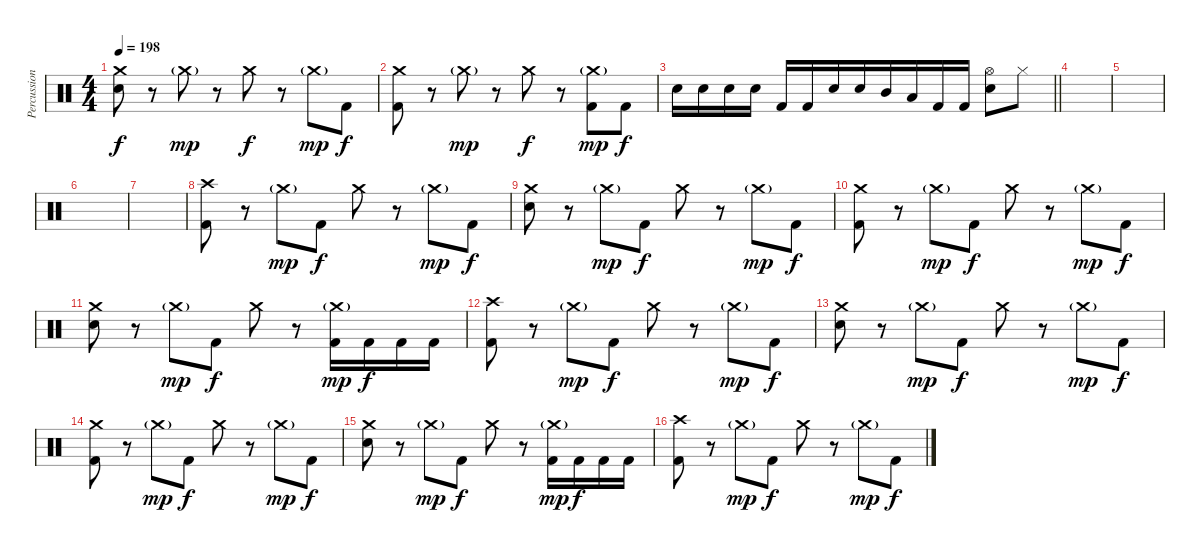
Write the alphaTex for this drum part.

\track ("Percussion" "Percussion") {instrument percussion}
\staff {score}
\articulation defaults
\ts (4 4)
\tempo 198
\clef neutral
\ks c
("Crash medium (hit)" "Electric Snare (hit)").8{dy f} r.8 "Crash medium (hit)"{g}.8{dy mp} r.8 "Crash medium (hit)".8{dy f} r.8 "Crash medium (hit)"{g}.8{dy mp beam merge} "Kick (hit) 2".8{dy f} |
("Crash medium (hit)" "Kick (hit) 2").8 r.8 "Crash medium (hit)"{g}.8{dy mp} r.8 "Crash medium (hit)".8{dy f} r.8 ("Crash medium (hit)"{g} "Kick (hit) 2").8{dy mp beam merge} "Kick (hit) 2".8{dy f} |
\barLineRight lightlight "Electric Snare (hit)".16{beam merge} "Electric Snare (hit)".16 "Electric Snare (hit)".16{beam merge} "Electric Snare (hit)".16 "Kick (hit) 2".16{beam merge} "Kick (hit) 2".16{beam merge} "Electric Snare (hit)".16 "Electric Snare (hit)".16{beam merge} "Mid Tom (hit)".16 "Low Tom (hit)".16 "Kick (hit) 2".16 "Kick (hit) 2".16
("Hi-Hat (open)" "Electric Snare (hit)").8 "Hi-Hat (closed)".8 |
\section ("" "")
|
|
|
|
("Crash high (hit)" "Kick (hit) 2").8 r.8 "Crash medium (hit)"{g}.8{dy mp} "Kick (hit) 2".8{dy f} "Crash medium (hit)".8 r.8{beam merge} "Crash medium (hit)"{g}.8{dy mp} "Kick (hit) 2".8{dy f} |
("Crash medium (hit)" "Electric Snare (hit)").8 r.8 "Crash medium (hit)"{g}.8{dy mp} "Kick (hit) 2".8{dy f} "Crash medium (hit)".8 r.8{beam merge} "Crash medium (hit)"{g}.8{dy mp} "Kick (hit) 2".8{dy f} |
("Crash medium (hit)" "Kick (hit) 2").8 r.8 "Crash medium (hit)"{g}.8{dy mp} "Kick (hit) 2".8{dy f} "Crash medium (hit)".8 r.8{beam merge} "Crash medium (hit)"{g}.8{dy mp} "Kick (hit) 2".8{dy f} |
("Crash medium (hit)" "Electric Snare (hit)").8 r.8 "Crash medium (hit)"{g}.8{dy mp} "Kick (hit) 2".8{dy f} "Crash medium (hit)".8 r.8{beam merge} ("Crash medium (hit)"{g} "Kick (hit) 2").16{dy mp} "Kick (hit) 2".16{dy f} "Kick (hit) 2".16{beam merge} "Kick (hit) 2".16 |
("Crash high (hit)" "Kick (hit) 2").8 r.8 "Crash medium (hit)"{g}.8{dy mp} "Kick (hit) 2".8{dy f} "Crash medium (hit)".8 r.8{beam merge} "Crash medium (hit)"{g}.8{dy mp} "Kick (hit) 2".8{dy f} |
("Crash medium (hit)" "Electric Snare (hit)").8 r.8 "Crash medium (hit)"{g}.8{dy mp} "Kick (hit) 2".8{dy f} "Crash medium (hit)".8 r.8{beam merge} "Crash medium (hit)"{g}.8{dy mp} "Kick (hit) 2".8{dy f} |
("Crash medium (hit)" "Kick (hit) 2").8 r.8 "Crash medium (hit)"{g}.8{dy mp} "Kick (hit) 2".8{dy f} "Crash medium (hit)".8 r.8{beam merge} "Crash medium (hit)"{g}.8{dy mp} "Kick (hit) 2".8{dy f} |
("Crash medium (hit)" "Electric Snare (hit)").8 r.8 "Crash medium (hit)"{g}.8{dy mp} "Kick (hit) 2".8{dy f} "Crash medium (hit)".8 r.8{beam merge} ("Crash medium (hit)"{g} "Kick (hit) 2").16{dy mp} "Kick (hit) 2".16{dy f} "Kick (hit) 2".16{beam merge} "Kick (hit) 2".16 |
("Crash high (hit)" "Kick (hit) 2").8 r.8 "Crash medium (hit)"{g}.8{dy mp} "Kick (hit) 2".8{dy f} "Crash medium (hit)".8 r.8{beam merge} "Crash medium (hit)"{g}.8{dy mp} "Kick (hit) 2".8{dy f}
